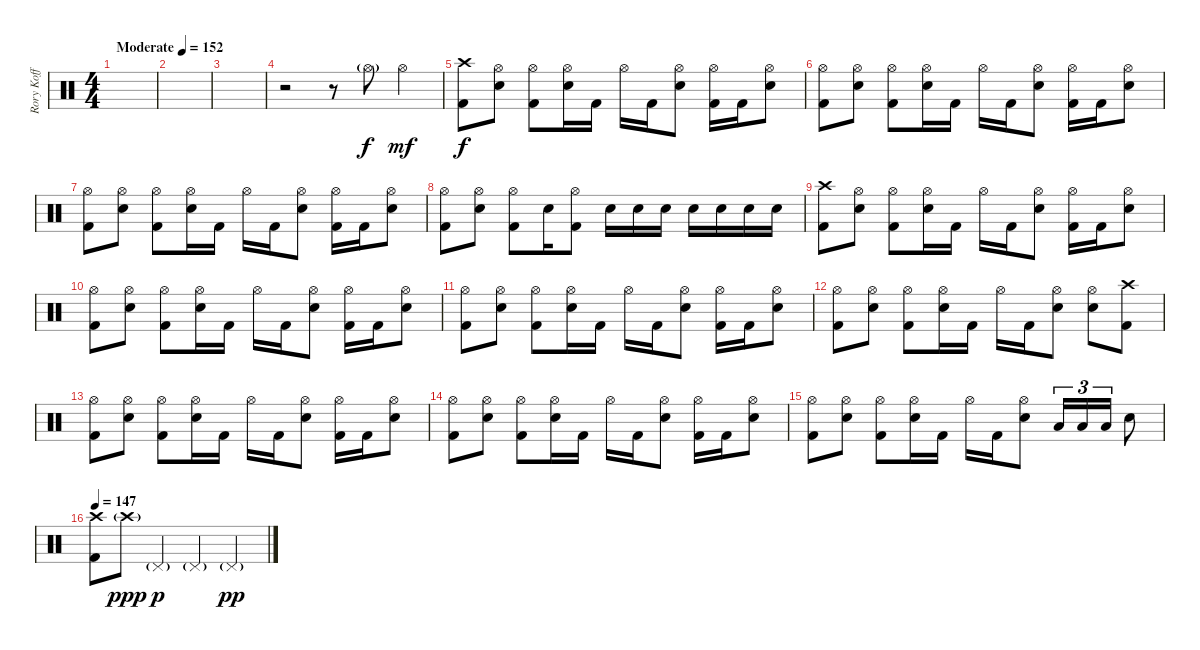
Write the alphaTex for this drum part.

\track ("Rory Koff" "Rory Koff") {instrument percussion}
\staff {score}
\articulation defaults
\ts (4 4)
\tempo (152 "Moderate")
\clef neutral
\ks c
|
|
|
r.2 r.8 "Hi-Hat (open)"{g}.8 "Hi-Hat (open)".4{dy mf} |
("Crash high (hit)" "Kick (hit) 2").8{dy f} ("Hi-Hat (open)" "Electric Snare (hit)").8 ("Hi-Hat (open)" "Kick (hit) 2").8 ("Hi-Hat (open)" "Electric Snare (hit)").16 "Kick (hit) 2".16 "Hi-Hat (open)".16 "Kick (hit) 2".16 ("Hi-Hat (open)" "Electric Snare (hit)").8 ("Hi-Hat (open)" "Kick (hit) 2").16 "Kick (hit) 2".16 ("Hi-Hat (open)" "Electric Snare (hit)").8 |
("Hi-Hat (open)" "Kick (hit) 2").8 ("Hi-Hat (open)" "Electric Snare (hit)").8 ("Hi-Hat (open)" "Kick (hit) 2").8 ("Hi-Hat (open)" "Electric Snare (hit)").16 "Kick (hit) 2".16 "Hi-Hat (open)".16 "Kick (hit) 2".16 ("Hi-Hat (open)" "Electric Snare (hit)").8 ("Hi-Hat (open)" "Kick (hit) 2").16 "Kick (hit) 2".16 ("Hi-Hat (open)" "Electric Snare (hit)").8 |
("Hi-Hat (open)" "Kick (hit) 2").8 ("Hi-Hat (open)" "Electric Snare (hit)").8 ("Hi-Hat (open)" "Kick (hit) 2").8 ("Hi-Hat (open)" "Electric Snare (hit)").16 "Kick (hit) 2".16 "Hi-Hat (open)".16 "Kick (hit) 2".16 ("Hi-Hat (open)" "Electric Snare (hit)").8 ("Hi-Hat (open)" "Kick (hit) 2").16 "Kick (hit) 2".16 ("Hi-Hat (open)" "Electric Snare (hit)").8 |
("Hi-Hat (open)" "Kick (hit) 2").8 ("Hi-Hat (open)" "Electric Snare (hit)").8 ("Hi-Hat (open)" "Kick (hit) 2").8 "Electric Snare (hit)".16 ("Hi-Hat (open)" "Kick (hit) 2").8 "Electric Snare (hit)".16 "Electric Snare (hit)".16 "Electric Snare (hit)".16 "Electric Snare (hit)".16 "Electric Snare (hit)".16 "Electric Snare (hit)".16 "Electric Snare (hit)".16 |
("Crash high (hit)" "Kick (hit) 2").8 ("Hi-Hat (open)" "Electric Snare (hit)").8 ("Hi-Hat (open)" "Kick (hit) 2").8 ("Hi-Hat (open)" "Electric Snare (hit)").16 "Kick (hit) 2".16 "Hi-Hat (open)".16 "Kick (hit) 2".16 ("Hi-Hat (open)" "Electric Snare (hit)").8 ("Hi-Hat (open)" "Kick (hit) 2").16 "Kick (hit) 2".16 ("Hi-Hat (open)" "Electric Snare (hit)").8 |
("Hi-Hat (open)" "Kick (hit) 2").8 ("Hi-Hat (open)" "Electric Snare (hit)").8 ("Hi-Hat (open)" "Kick (hit) 2").8 ("Hi-Hat (open)" "Electric Snare (hit)").16 "Kick (hit) 2".16 "Hi-Hat (open)".16 "Kick (hit) 2".16 ("Hi-Hat (open)" "Electric Snare (hit)").8 ("Hi-Hat (open)" "Kick (hit) 2").16 "Kick (hit) 2".16 ("Hi-Hat (open)" "Electric Snare (hit)").8 |
("Hi-Hat (open)" "Kick (hit) 2").8 ("Hi-Hat (open)" "Electric Snare (hit)").8 ("Hi-Hat (open)" "Kick (hit) 2").8 ("Hi-Hat (open)" "Electric Snare (hit)").16 "Kick (hit) 2".16 "Hi-Hat (open)".16 "Kick (hit) 2".16 ("Hi-Hat (open)" "Electric Snare (hit)").8 ("Hi-Hat (open)" "Kick (hit) 2").16 "Kick (hit) 2".16 ("Hi-Hat (open)" "Electric Snare (hit)").8 |
("Hi-Hat (open)" "Kick (hit) 2").8 ("Hi-Hat (open)" "Electric Snare (hit)").8 ("Hi-Hat (open)" "Kick (hit) 2").8 ("Hi-Hat (open)" "Electric Snare (hit)").16 "Kick (hit) 2".16 "Hi-Hat (open)".16 "Kick (hit) 2".16 ("Hi-Hat (open)" "Electric Snare (hit)").8 ("Hi-Hat (open)" "Electric Snare (hit)").8 ("Crash high (hit)" "Kick (hit) 2").8 |
("Hi-Hat (open)" "Kick (hit) 2").8 ("Hi-Hat (open)" "Electric Snare (hit)").8 ("Hi-Hat (open)" "Kick (hit) 2").8 ("Hi-Hat (open)" "Electric Snare (hit)").16 "Kick (hit) 2".16 "Hi-Hat (open)".16 "Kick (hit) 2".16 ("Hi-Hat (open)" "Electric Snare (hit)").8 ("Hi-Hat (open)" "Kick (hit) 2").16 "Kick (hit) 2".16 ("Hi-Hat (open)" "Electric Snare (hit)").8 |
("Hi-Hat (open)" "Kick (hit) 2").8 ("Hi-Hat (open)" "Electric Snare (hit)").8 ("Hi-Hat (open)" "Kick (hit) 2").8 ("Hi-Hat (open)" "Electric Snare (hit)").16 "Kick (hit) 2".16 "Hi-Hat (open)".16 "Kick (hit) 2".16 ("Hi-Hat (open)" "Electric Snare (hit)").8 ("Hi-Hat (open)" "Kick (hit) 2").16 "Kick (hit) 2".16 ("Hi-Hat (open)" "Electric Snare (hit)").8 |
("Hi-Hat (open)" "Kick (hit) 2").8 ("Hi-Hat (open)" "Electric Snare (hit)").8 ("Hi-Hat (open)" "Kick (hit) 2").8 ("Hi-Hat (open)" "Electric Snare (hit)").16 "Kick (hit) 2".16 "Hi-Hat (open)".16 "Kick (hit) 2".16 ("Hi-Hat (open)" "Electric Snare (hit)").8 "Low Tom (hit)".16{tu (3 2)} "Low Tom (hit)".16{tu (3 2)} "Low Tom (hit)".16{tu (3 2)} "Electric Snare (hit)".8 |
\tempo 147
("Crash high (hit)" "Kick (hit) 2").8 "Crash high (hit)"{g}.8{dy ppp} "Pedal Hi-Hat (hit)"{g}.4{dy p} "Pedal Hi-Hat (hit)"{g}.4 "Pedal Hi-Hat (hit)"{g}.4{dy pp}
